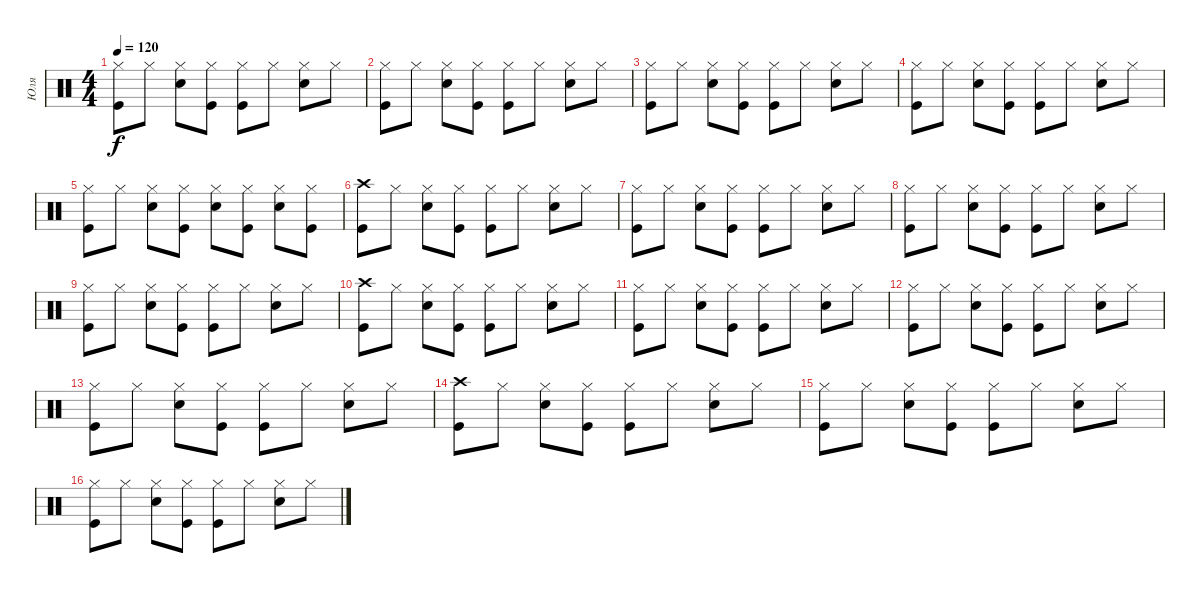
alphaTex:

\track ("Юля" "Юля") {instrument percussion}
\staff {score}
\articulation defaults
\ts (4 4)
\tempo 120
\clef neutral
\ks c
("Hi-Hat (closed)" "Kick (hit)").8{dy f} "Hi-Hat (closed)".8 ("Hi-Hat (closed)" "Snare (hit) 2").8 ("Hi-Hat (closed)" "Kick (hit)").8 ("Hi-Hat (closed)" "Kick (hit)").8 "Hi-Hat (closed)".8 ("Hi-Hat (closed)" "Snare (hit) 2").8 "Hi-Hat (closed)".8 |
("Hi-Hat (closed)" "Kick (hit)").8 "Hi-Hat (closed)".8 ("Hi-Hat (closed)" "Snare (hit) 2").8 ("Hi-Hat (closed)" "Kick (hit)").8 ("Hi-Hat (closed)" "Kick (hit)").8 "Hi-Hat (closed)".8 ("Hi-Hat (closed)" "Snare (hit) 2").8 "Hi-Hat (closed)".8 |
("Hi-Hat (closed)" "Kick (hit)").8 "Hi-Hat (closed)".8 ("Hi-Hat (closed)" "Snare (hit) 2").8 ("Hi-Hat (closed)" "Kick (hit)").8 ("Hi-Hat (closed)" "Kick (hit)").8 "Hi-Hat (closed)".8 ("Hi-Hat (closed)" "Snare (hit) 2").8 "Hi-Hat (closed)".8 |
("Hi-Hat (closed)" "Kick (hit)").8 "Hi-Hat (closed)".8 ("Hi-Hat (closed)" "Snare (hit) 2").8 ("Hi-Hat (closed)" "Kick (hit)").8 ("Hi-Hat (closed)" "Kick (hit)").8 "Hi-Hat (closed)".8 ("Hi-Hat (closed)" "Snare (hit) 2").8 "Hi-Hat (closed)".8 |
("Hi-Hat (closed)" "Kick (hit)").8 "Hi-Hat (closed)".8 ("Hi-Hat (closed)" "Snare (hit) 2").8 ("Hi-Hat (closed)" "Kick (hit)").8 ("Hi-Hat (closed)" "Snare (hit) 2").8 ("Hi-Hat (closed)" "Kick (hit)").8 ("Hi-Hat (closed)" "Snare (hit) 2").8 ("Hi-Hat (closed)" "Kick (hit)").8 |
("Crash high (hit)" "Kick (hit)").8 "Hi-Hat (closed)".8 ("Hi-Hat (closed)" "Snare (hit) 2").8 ("Hi-Hat (closed)" "Kick (hit)").8 ("Hi-Hat (closed)" "Kick (hit)").8 "Hi-Hat (closed)".8 ("Hi-Hat (closed)" "Snare (hit) 2").8 "Hi-Hat (closed)".8 |
("Hi-Hat (closed)" "Kick (hit)").8 "Hi-Hat (closed)".8 ("Hi-Hat (closed)" "Snare (hit) 2").8 ("Hi-Hat (closed)" "Kick (hit)").8 ("Hi-Hat (closed)" "Kick (hit)").8 "Hi-Hat (closed)".8 ("Hi-Hat (closed)" "Snare (hit) 2").8 "Hi-Hat (closed)".8 |
("Hi-Hat (closed)" "Kick (hit)").8 "Hi-Hat (closed)".8 ("Hi-Hat (closed)" "Snare (hit) 2").8 ("Hi-Hat (closed)" "Kick (hit)").8 ("Hi-Hat (closed)" "Kick (hit)").8 "Hi-Hat (closed)".8 ("Hi-Hat (closed)" "Snare (hit) 2").8 "Hi-Hat (closed)".8 |
("Hi-Hat (closed)" "Kick (hit)").8 "Hi-Hat (closed)".8 ("Hi-Hat (closed)" "Snare (hit) 2").8 ("Hi-Hat (closed)" "Kick (hit)").8 ("Hi-Hat (closed)" "Kick (hit)").8 "Hi-Hat (closed)".8 ("Hi-Hat (closed)" "Snare (hit) 2").8 "Hi-Hat (closed)".8 |
("Crash high (hit)" "Kick (hit)").8 "Hi-Hat (closed)".8 ("Hi-Hat (closed)" "Snare (hit) 2").8 ("Hi-Hat (closed)" "Kick (hit)").8 ("Hi-Hat (closed)" "Kick (hit)").8 "Hi-Hat (closed)".8 ("Hi-Hat (closed)" "Snare (hit) 2").8 "Hi-Hat (closed)".8 |
("Hi-Hat (closed)" "Kick (hit)").8 "Hi-Hat (closed)".8 ("Hi-Hat (closed)" "Snare (hit) 2").8 ("Hi-Hat (closed)" "Kick (hit)").8 ("Hi-Hat (closed)" "Kick (hit)").8 "Hi-Hat (closed)".8 ("Hi-Hat (closed)" "Snare (hit) 2").8 "Hi-Hat (closed)".8 |
("Hi-Hat (closed)" "Kick (hit)").8 "Hi-Hat (closed)".8 ("Hi-Hat (closed)" "Snare (hit) 2").8 ("Hi-Hat (closed)" "Kick (hit)").8 ("Hi-Hat (closed)" "Kick (hit)").8 "Hi-Hat (closed)".8 ("Hi-Hat (closed)" "Snare (hit) 2").8 "Hi-Hat (closed)".8 |
("Hi-Hat (closed)" "Kick (hit)").8 "Hi-Hat (closed)".8 ("Hi-Hat (closed)" "Snare (hit) 2").8 ("Hi-Hat (closed)" "Kick (hit)").8 ("Hi-Hat (closed)" "Kick (hit)").8 "Hi-Hat (closed)".8 ("Hi-Hat (closed)" "Snare (hit) 2").8 "Hi-Hat (closed)".8 |
("Crash high (hit)" "Kick (hit)").8 "Hi-Hat (closed)".8 ("Hi-Hat (closed)" "Snare (hit) 2").8 ("Hi-Hat (closed)" "Kick (hit)").8 ("Hi-Hat (closed)" "Kick (hit)").8 "Hi-Hat (closed)".8 ("Hi-Hat (closed)" "Snare (hit) 2").8 "Hi-Hat (closed)".8 |
("Hi-Hat (closed)" "Kick (hit)").8 "Hi-Hat (closed)".8 ("Hi-Hat (closed)" "Snare (hit) 2").8 ("Hi-Hat (closed)" "Kick (hit)").8 ("Hi-Hat (closed)" "Kick (hit)").8 "Hi-Hat (closed)".8 ("Hi-Hat (closed)" "Snare (hit) 2").8 "Hi-Hat (closed)".8 |
("Hi-Hat (closed)" "Kick (hit)").8 "Hi-Hat (closed)".8 ("Hi-Hat (closed)" "Snare (hit) 2").8 ("Hi-Hat (closed)" "Kick (hit)").8 ("Hi-Hat (closed)" "Kick (hit)").8 "Hi-Hat (closed)".8 ("Hi-Hat (closed)" "Snare (hit) 2").8 "Hi-Hat (closed)".8
